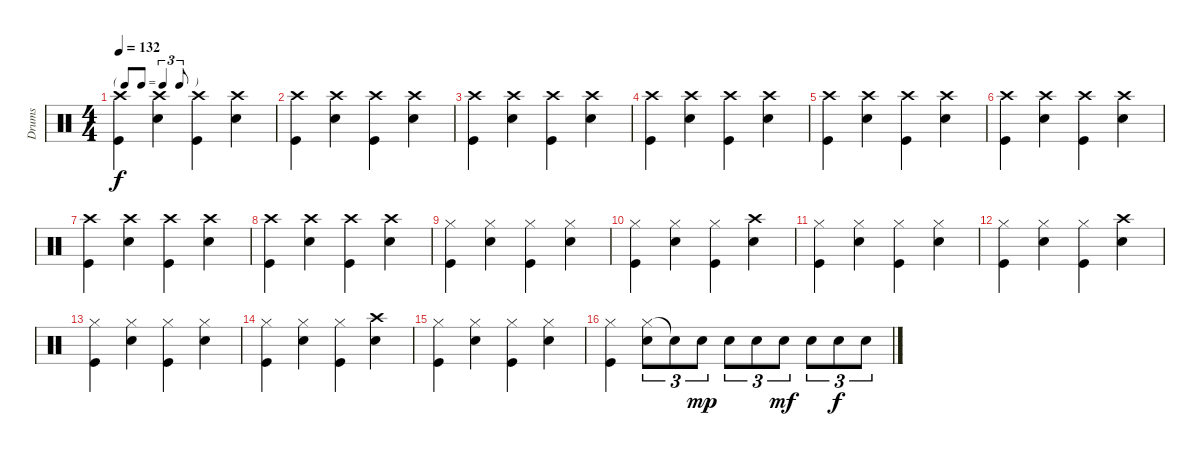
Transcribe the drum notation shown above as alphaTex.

\track ("Drums" "Drums") {instrument percussion}
\staff {score}
\articulation defaults
\ts (4 4)
\tf triplet8th
\tempo 132
\clef neutral
\ks c
("Crash high (hit)" "Kick (hit)").4{dy f} ("Crash high (hit)" "Electric Snare (hit)").4 ("Crash high (hit)" "Kick (hit)").4 ("Crash high (hit)" "Electric Snare (hit)").4 |
("Crash high (hit)" "Kick (hit)").4 ("Crash high (hit)" "Electric Snare (hit)").4 ("Crash high (hit)" "Kick (hit)").4 ("Crash high (hit)" "Electric Snare (hit)").4 |
("Crash high (hit)" "Kick (hit)").4 ("Crash high (hit)" "Electric Snare (hit)").4 ("Crash high (hit)" "Kick (hit)").4 ("Crash high (hit)" "Electric Snare (hit)").4 |
("Crash high (hit)" "Kick (hit)").4 ("Crash high (hit)" "Electric Snare (hit)").4 ("Crash high (hit)" "Kick (hit)").4 ("Crash high (hit)" "Electric Snare (hit)").4 |
("Crash high (hit)" "Kick (hit)").4 ("Crash high (hit)" "Electric Snare (hit)").4 ("Crash high (hit)" "Kick (hit)").4 ("Crash high (hit)" "Electric Snare (hit)").4 |
("Crash high (hit)" "Kick (hit)").4 ("Crash high (hit)" "Electric Snare (hit)").4 ("Crash high (hit)" "Kick (hit)").4 ("Crash high (hit)" "Electric Snare (hit)").4 |
("Crash high (hit)" "Kick (hit)").4 ("Crash high (hit)" "Electric Snare (hit)").4 ("Crash high (hit)" "Kick (hit)").4 ("Crash high (hit)" "Electric Snare (hit)").4 |
("Crash high (hit)" "Kick (hit)").4 ("Crash high (hit)" "Electric Snare (hit)").4 ("Crash high (hit)" "Kick (hit)").4 ("Crash high (hit)" "Electric Snare (hit)").4 |
("Hi-Hat (closed)" "Kick (hit)").4 ("Hi-Hat (closed)" "Electric Snare (hit)").4 ("Hi-Hat (closed)" "Kick (hit)").4 ("Hi-Hat (closed)" "Electric Snare (hit)").4 |
("Hi-Hat (closed)" "Kick (hit)").4 ("Hi-Hat (closed)" "Electric Snare (hit)").4 ("Hi-Hat (closed)" "Kick (hit)").4 ("Crash high (hit)" "Electric Snare (hit)").4 |
("Hi-Hat (closed)" "Kick (hit)").4 ("Hi-Hat (closed)" "Electric Snare (hit)").4 ("Hi-Hat (closed)" "Kick (hit)").4 ("Hi-Hat (closed)" "Electric Snare (hit)").4 |
("Hi-Hat (closed)" "Kick (hit)").4 ("Hi-Hat (closed)" "Electric Snare (hit)").4 ("Hi-Hat (closed)" "Kick (hit)").4 ("Crash high (hit)" "Electric Snare (hit)").4 |
("Hi-Hat (closed)" "Kick (hit)").4 ("Hi-Hat (closed)" "Electric Snare (hit)").4 ("Hi-Hat (closed)" "Kick (hit)").4 ("Hi-Hat (closed)" "Electric Snare (hit)").4 |
("Hi-Hat (closed)" "Kick (hit)").4 ("Hi-Hat (closed)" "Electric Snare (hit)").4 ("Hi-Hat (closed)" "Kick (hit)").4 ("Crash high (hit)" "Electric Snare (hit)").4 |
("Hi-Hat (closed)" "Kick (hit)").4 ("Hi-Hat (closed)" "Electric Snare (hit)").4 ("Hi-Hat (closed)" "Kick (hit)").4 ("Hi-Hat (closed)" "Electric Snare (hit)").4 |
("Hi-Hat (closed)" "Kick (hit)").4 ("Hi-Hat (closed)" "Electric Snare (hit)").8{tu (3 2)} "Snare (hit)"{t}.8{tu (3 2)} "Electric Snare (hit)".8{tu (3 2) dy mp} "Electric Snare (hit)".8{tu (3 2)} "Electric Snare (hit)".8{tu (3 2)} "Electric Snare (hit)".8{tu (3 2) dy mf} "Electric Snare (hit)".8{tu (3 2)} "Electric Snare (hit)".8{tu (3 2) dy f} "Electric Snare (hit)".8{tu (3 2)}
